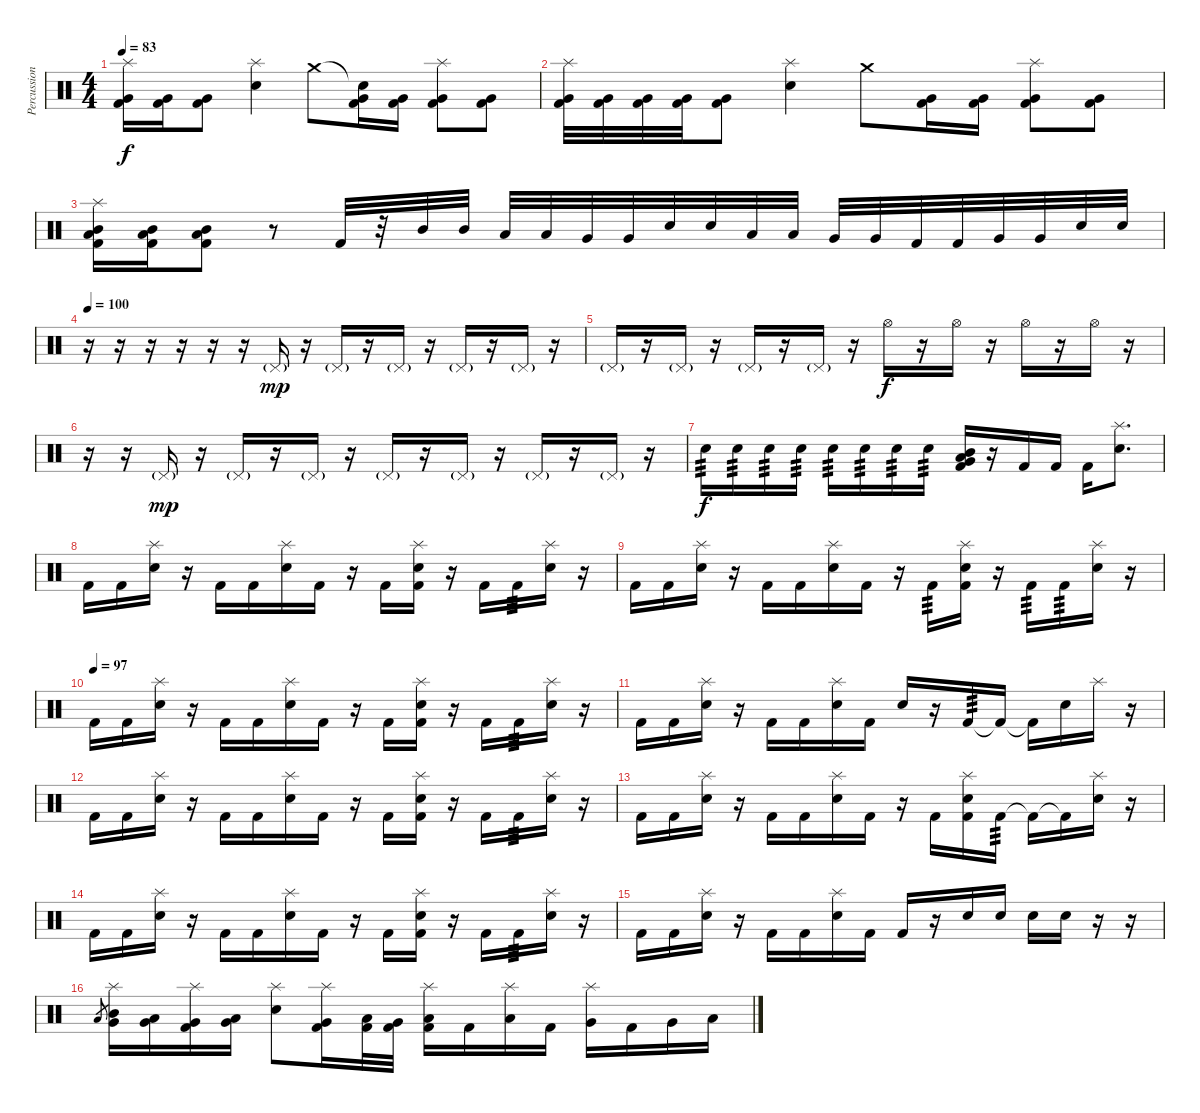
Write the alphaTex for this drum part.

\track ("Percussion" "Percussion") {instrument percussion}
\staff {score}
\articulation defaults
\ts (4 4)
\tempo 83
\clef neutral
\ks c
("Splash (hit)" "Very Low Tom (hit)" "Kick (hit) 2").16{dy f} ("Very Low Tom (hit)" "Kick (hit) 2").16 ("Very Low Tom (hit)" "Kick (hit) 2").8 ("Splash (hit)" "Electric Snare (hit)").4 "Crash medium (hit)".8 ("Snare (hit)"{t} "Very Low Tom (hit)" "Kick (hit) 2").16 ("Very Low Tom (hit)" "Kick (hit) 2").16 ("Splash (hit)" "Very Low Tom (hit)" "Kick (hit) 2").8 ("Very Low Tom (hit)" "Kick (hit) 2").8 |
("Splash (hit)" "Very Low Tom (hit)" "Kick (hit) 2").32 ("Very Low Tom (hit)" "Kick (hit) 2").32 ("Very Low Tom (hit)" "Kick (hit) 2").32 ("Very Low Tom (hit)" "Kick (hit) 2").32 ("Very Low Tom (hit)" "Kick (hit) 2").8 ("Splash (hit)" "Electric Snare (hit)").4 "Crash medium (hit)".8 ("Very Low Tom (hit)" "Kick (hit) 2").16 ("Very Low Tom (hit)" "Kick (hit) 2").16 ("Splash (hit)" "Very Low Tom (hit)" "Kick (hit) 2").8 ("Very Low Tom (hit)" "Kick (hit) 2").8 |
("Splash (hit)" "Mid Tom (hit)" "Low Tom (hit)" "Kick (hit) 2").16 ("Mid Tom (hit)" "Low Tom (hit)" "Kick (hit) 2").16 ("Mid Tom (hit)" "Low Tom (hit)" "Kick (hit) 2").8 r.8 "Kick (hit) 2".32 r.32 "Mid Tom (hit)".32 "Mid Tom (hit)".32 "Low Tom (hit)".32 "Low Tom (hit)".32 "Very Low Tom (hit)".32 "Very Low Tom (hit)".32 "Electric Snare (hit)".32 "Electric Snare (hit)".32 "Low Tom (hit)".32 "Low Tom (hit)".32 "Very Low Tom (hit)".32 "Very Low Tom (hit)".32 "Kick (hit) 2".32 "Kick (hit) 2".32 "Very Low Tom (hit)".32 "Very Low Tom (hit)".32 "Electric Snare (hit)".32 "Electric Snare (hit)".32 |
\tempo 100
r.16 r.16 r.16 r.16 r.16 r.16 "Pedal Hi-Hat (hit)"{g}.16{dy mp} r.16 "Pedal Hi-Hat (hit)"{g}.16 r.16 "Pedal Hi-Hat (hit)"{g}.16 r.16 "Pedal Hi-Hat (hit)"{g}.16 r.16 "Pedal Hi-Hat (hit)"{g}.16 r.16 |
"Pedal Hi-Hat (hit)"{g}.16 r.16 "Pedal Hi-Hat (hit)"{g}.16 r.16 "Pedal Hi-Hat (hit)"{g}.16 r.16 "Pedal Hi-Hat (hit)"{g}.16 r.16 "Hi-Hat (open)".16{dy f} r.16 "Hi-Hat (open)".16 r.16 "Hi-Hat (open)".16 r.16 "Hi-Hat (open)".16 r.16 |
r.16 r.16 "Pedal Hi-Hat (hit)"{g}.16{dy mp} r.16 "Pedal Hi-Hat (hit)"{g}.16 r.16 "Pedal Hi-Hat (hit)"{g}.16 r.16 "Pedal Hi-Hat (hit)"{g}.16 r.16 "Pedal Hi-Hat (hit)"{g}.16 r.16 "Pedal Hi-Hat (hit)"{g}.16 r.16 "Pedal Hi-Hat (hit)"{g}.16 r.16 |
"Electric Snare (hit)".16{tp 3 dy f} "Electric Snare (hit)".16{tp 3} "Electric Snare (hit)".16{tp 3} "Electric Snare (hit)".16{tp 3} "Electric Snare (hit)".16{tp 3} "Electric Snare (hit)".16{tp 3} "Electric Snare (hit)".16{tp 3} "Electric Snare (hit)".16{tp 3} ("Mid Tom (hit)" "Very Low Tom (hit)" "Low Floor Tom (hit)" "Kick (hit) 2").16 r.16 "Kick (hit) 2".16 "Kick (hit) 2".16 "Kick (hit) 2".16 ("Splash (hit)" "Electric Snare (hit)").8{d} |
"Kick (hit) 2".16 "Kick (hit) 2".16 ("Splash (hit)" "Electric Snare (hit)").16 r.16 "Kick (hit) 2".16 "Kick (hit) 2".16 ("Splash (hit)" "Electric Snare (hit)").16 "Kick (hit) 2".16 r.16 "Kick (hit) 2".16 ("Splash (hit)" "Electric Snare (hit)" "Kick (hit) 2").16 r.16 "Kick (hit) 2".16 "Kick (hit) 2".16{tp 3} ("Splash (hit)" "Electric Snare (hit)").16 r.16 |
"Kick (hit) 2".16 "Kick (hit) 2".16 ("Splash (hit)" "Electric Snare (hit)").16 r.16 "Kick (hit) 2".16 "Kick (hit) 2".16 ("Splash (hit)" "Electric Snare (hit)").16 "Kick (hit) 2".16 r.16 "Kick (hit) 2".16{tp 3} ("Splash (hit)" "Electric Snare (hit)" "Kick (hit) 2").16 r.16 "Kick (hit) 2".16{tp 3} "Kick (hit) 2".16{tp 3} ("Splash (hit)" "Electric Snare (hit)").16 r.16 |
\tempo (97)
"Kick (hit) 2".16 "Kick (hit) 2".16 ("Splash (hit)" "Electric Snare (hit)").16 r.16 "Kick (hit) 2".16 "Kick (hit) 2".16 ("Splash (hit)" "Electric Snare (hit)").16 "Kick (hit) 2".16 r.16 "Kick (hit) 2".16 ("Splash (hit)" "Electric Snare (hit)" "Kick (hit) 2").16 r.16 "Kick (hit) 2".16 "Kick (hit) 2".16{tp 3} ("Splash (hit)" "Electric Snare (hit)").16 r.16 |
"Kick (hit) 2".16 "Kick (hit) 2".16 ("Splash (hit)" "Electric Snare (hit)").16 r.16 "Kick (hit) 2".16 "Kick (hit) 2".16 ("Splash (hit)" "Electric Snare (hit)").16 "Kick (hit) 2".16 "Electric Snare (hit)".16 r.16 "Kick (hit) 2".16{tp 3} "Kick (hit) 2"{t}.16 "Kick (hit) 2"{t}.16 "Electric Snare (hit)".16 "Splash (hit)".16 r.16 |
"Kick (hit) 2".16 "Kick (hit) 2".16 ("Splash (hit)" "Electric Snare (hit)").16 r.16 "Kick (hit) 2".16 "Kick (hit) 2".16 ("Splash (hit)" "Electric Snare (hit)").16 "Kick (hit) 2".16 r.16 "Kick (hit) 2".16 ("Splash (hit)" "Electric Snare (hit)" "Kick (hit) 2").16 r.16 "Kick (hit) 2".16 "Kick (hit) 2".16{tp 3} ("Splash (hit)" "Electric Snare (hit)").16 r.16 |
"Kick (hit) 2".16 "Kick (hit) 2".16 ("Splash (hit)" "Electric Snare (hit)").16 r.16 "Kick (hit) 2".16 "Kick (hit) 2".16 ("Splash (hit)" "Electric Snare (hit)").16 "Kick (hit) 2".16 r.16 "Kick (hit) 2".16 ("Splash (hit)" "Electric Snare (hit)" "Kick (hit) 2").16 "Kick (hit) 2".16{tp 3} "Kick (hit) 2"{t}.16 "Kick (hit) 2"{t}.16 ("Splash (hit)" "Electric Snare (hit)").16 r.16 |
"Kick (hit) 2".16 "Kick (hit) 2".16 ("Splash (hit)" "Electric Snare (hit)").16 r.16 "Kick (hit) 2".16 "Kick (hit) 2".16 ("Splash (hit)" "Electric Snare (hit)").16 "Kick (hit) 2".16 r.16 "Kick (hit) 2".16 ("Splash (hit)" "Electric Snare (hit)" "Kick (hit) 2").16 r.16 "Kick (hit) 2".16 "Kick (hit) 2".16{tp 3} ("Splash (hit)" "Electric Snare (hit)").16 r.16 |
"Kick (hit) 2".16 "Kick (hit) 2".16 ("Splash (hit)" "Electric Snare (hit)").16 r.16 "Kick (hit) 2".16 "Kick (hit) 2".16 ("Splash (hit)" "Electric Snare (hit)").16 "Kick (hit) 2".16 "Kick (hit) 2".16 r.16 "Electric Snare (hit)".16 "Electric Snare (hit)".16 "Electric Snare (hit)".16 "Electric Snare (hit)".16 r.16 r.16 |
"Low Tom (hit)".8{gr} ("Splash (hit)" "Mid Tom (hit)" "Very Low Tom (hit)").16 ("Low Tom (hit)" "Very Low Tom (hit)").16 ("Splash (hit)" "Very Low Tom (hit)" "Kick (hit) 2").16 ("Low Tom (hit)" "Very Low Tom (hit)").16 ("Splash (hit)" "Electric Snare (hit)").8 ("Splash (hit)" "Very Low Tom (hit)" "Kick (hit) 2").16 ("Low Tom (hit)" "Kick (hit) 2").32 ("Very Low Tom (hit)" "Kick (hit) 2").32 ("Splash (hit)" "Low Floor Tom (hit)" "Kick (hit) 2").16 "Kick (hit) 2".16 ("Splash (hit)" "Low Tom (hit)").16 "Kick (hit) 2".16 ("Splash (hit)" "Very Low Tom (hit)").16 "Kick (hit) 2".16 "Very Low Tom (hit)".16 "Low Tom (hit)".16
